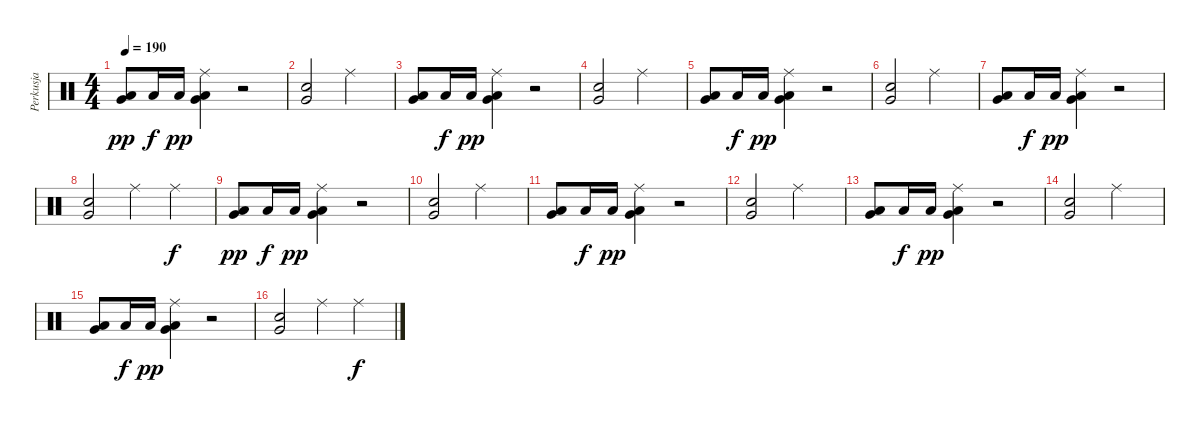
\track ("Perkusja" "Perkusja") {instrument percussion}
\staff {score}
\articulation defaults
\ts (4 4)
\tempo 190
\clef neutral
\ks c
("Very Low Tom (hit)" "Low Floor Tom (hit)").8{dy pp} "Low Floor Tom (hit)".16{dy f} "Low Floor Tom (hit)".16{dy pp} ("Ride (middle)" "Very Low Tom (hit)" "Low Floor Tom (hit)").4 r.2 |
("Snare (hit) 2" "Very Low Tom (hit)").2 "Ride (middle)".2 |
("Very Low Tom (hit)" "Low Floor Tom (hit)").8 "Low Floor Tom (hit)".16{dy f} "Low Floor Tom (hit)".16{dy pp} ("Ride (middle)" "Very Low Tom (hit)" "Low Floor Tom (hit)").4 r.2 |
("Snare (hit) 2" "Very Low Tom (hit)").2 "Ride (middle)".2 |
("Very Low Tom (hit)" "Low Floor Tom (hit)").8 "Low Floor Tom (hit)".16{dy f} "Low Floor Tom (hit)".16{dy pp} ("Ride (middle)" "Very Low Tom (hit)" "Low Floor Tom (hit)").4 r.2 |
("Snare (hit) 2" "Very Low Tom (hit)").2 "Ride (middle)".2 |
("Very Low Tom (hit)" "Low Floor Tom (hit)").8 "Low Floor Tom (hit)".16{dy f} "Low Floor Tom (hit)".16{dy pp} ("Ride (middle)" "Very Low Tom (hit)" "Low Floor Tom (hit)").4 r.2 |
("Snare (hit) 2" "Very Low Tom (hit)").2 "Ride (middle)".4 "Ride (middle)".4{dy f} |
("Very Low Tom (hit)" "Low Floor Tom (hit)").8{dy pp} "Low Floor Tom (hit)".16{dy f} "Low Floor Tom (hit)".16{dy pp} ("Ride (middle)" "Very Low Tom (hit)" "Low Floor Tom (hit)").4 r.2 |
("Snare (hit) 2" "Very Low Tom (hit)").2 "Ride (middle)".2 |
("Very Low Tom (hit)" "Low Floor Tom (hit)").8 "Low Floor Tom (hit)".16{dy f} "Low Floor Tom (hit)".16{dy pp} ("Ride (middle)" "Very Low Tom (hit)" "Low Floor Tom (hit)").4 r.2 |
("Snare (hit) 2" "Very Low Tom (hit)").2 "Ride (middle)".2 |
("Very Low Tom (hit)" "Low Floor Tom (hit)").8 "Low Floor Tom (hit)".16{dy f} "Low Floor Tom (hit)".16{dy pp} ("Ride (middle)" "Very Low Tom (hit)" "Low Floor Tom (hit)").4 r.2 |
("Snare (hit) 2" "Very Low Tom (hit)").2 "Ride (middle)".2 |
("Very Low Tom (hit)" "Low Floor Tom (hit)").8 "Low Floor Tom (hit)".16{dy f} "Low Floor Tom (hit)".16{dy pp} ("Ride (middle)" "Very Low Tom (hit)" "Low Floor Tom (hit)").4 r.2 |
("Snare (hit) 2" "Very Low Tom (hit)").2 "Ride (middle)".4 "Ride (middle)".4{dy f}
